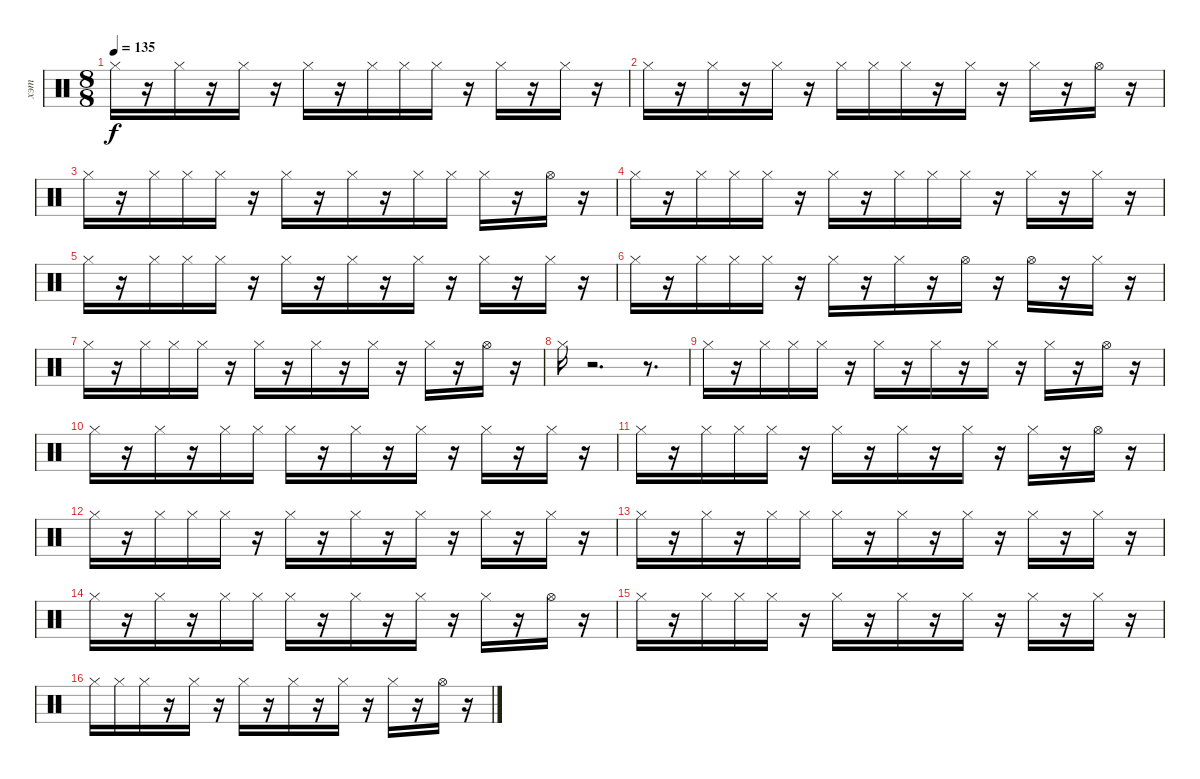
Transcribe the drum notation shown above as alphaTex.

\track ("хэт" "хэт") {instrument percussion}
\staff {score}
\articulation defaults
\ts (8 8)
\tempo 135
\clef neutral
\ks c "Hi-Hat (closed)".16{dy f}
r.16 "Hi-Hat (closed)".16 r.16 "Hi-Hat (closed)".16 r.16 "Hi-Hat (closed)".16 r.16 "Hi-Hat (closed)".16 "Hi-Hat (closed)".16 "Hi-Hat (closed)".16 r.16 "Hi-Hat (closed)".16 r.16 "Hi-Hat (closed)".16 r.16 |
"Hi-Hat (closed)".16 r.16 "Hi-Hat (closed)".16 r.16 "Hi-Hat (closed)".16 r.16 "Hi-Hat (closed)".16 "Hi-Hat (closed)".16 "Hi-Hat (closed)".16 r.16 "Hi-Hat (closed)".16 r.16 "Hi-Hat (closed)".16 r.16 "Hi-Hat (open)".16 r.16 |
"Hi-Hat (closed)".16 r.16 "Hi-Hat (closed)".16 "Hi-Hat (closed)".16 "Hi-Hat (closed)".16 r.16 "Hi-Hat (closed)".16 r.16 "Hi-Hat (closed)".16 r.16 "Hi-Hat (closed)".16 "Hi-Hat (closed)".16 "Hi-Hat (closed)".16 r.16 "Hi-Hat (open)".16 r.16 |
"Hi-Hat (closed)".16 r.16 "Hi-Hat (closed)".16 "Hi-Hat (closed)".16 "Hi-Hat (closed)".16 r.16 "Hi-Hat (closed)".16 r.16 "Hi-Hat (closed)".16 "Hi-Hat (closed)".16 "Hi-Hat (closed)".16 r.16 "Hi-Hat (closed)".16 r.16 "Hi-Hat (closed)".16 r.16 |
"Hi-Hat (closed)".16 r.16 "Hi-Hat (closed)".16 "Hi-Hat (closed)".16 "Hi-Hat (closed)".16 r.16 "Hi-Hat (closed)".16 r.16 "Hi-Hat (closed)".16 r.16 "Hi-Hat (closed)".16 r.16 "Hi-Hat (closed)".16 r.16 "Hi-Hat (closed)".16 r.16 |
"Hi-Hat (closed)".16 r.16 "Hi-Hat (closed)".16 "Hi-Hat (closed)".16 "Hi-Hat (closed)".16 r.16 "Hi-Hat (closed)".16 r.16 "Hi-Hat (closed)".16 r.16 "Hi-Hat (open)".16 r.16 "Hi-Hat (open)".16 r.16 "Hi-Hat (closed)".16 r.16 |
"Hi-Hat (closed)".16 r.16 "Hi-Hat (closed)".16 "Hi-Hat (closed)".16 "Hi-Hat (closed)".16 r.16 "Hi-Hat (closed)".16 r.16 "Hi-Hat (closed)".16 r.16 "Hi-Hat (closed)".16 r.16 "Hi-Hat (closed)".16 r.16 "Hi-Hat (open)".16 r.16 |
"Hi-Hat (closed)".16 r.2{d} r.8{d} |
"Hi-Hat (closed)".16 r.16 "Hi-Hat (closed)".16 "Hi-Hat (closed)".16 "Hi-Hat (closed)".16 r.16 "Hi-Hat (closed)".16 r.16 "Hi-Hat (closed)".16 r.16 "Hi-Hat (closed)".16 r.16 "Hi-Hat (closed)".16 r.16 "Hi-Hat (open)".16 r.16 |
"Hi-Hat (closed)".16 r.16 "Hi-Hat (closed)".16 r.16 "Hi-Hat (closed)".16 "Hi-Hat (closed)".16 "Hi-Hat (closed)".16 r.16 "Hi-Hat (closed)".16 r.16 "Hi-Hat (closed)".16 r.16 "Hi-Hat (closed)".16 r.16 "Hi-Hat (closed)".16 r.16 |
"Hi-Hat (closed)".16 r.16 "Hi-Hat (closed)".16 "Hi-Hat (closed)".16 "Hi-Hat (closed)".16 r.16 "Hi-Hat (closed)".16 r.16 "Hi-Hat (closed)".16 r.16 "Hi-Hat (closed)".16 r.16 "Hi-Hat (closed)".16 r.16 "Hi-Hat (open)".16 r.16 |
"Hi-Hat (closed)".16 r.16 "Hi-Hat (closed)".16 "Hi-Hat (closed)".16 "Hi-Hat (closed)".16 r.16 "Hi-Hat (closed)".16 r.16 "Hi-Hat (closed)".16 r.16 "Hi-Hat (closed)".16 r.16 "Hi-Hat (closed)".16 r.16 "Hi-Hat (closed)".16 r.16 |
"Hi-Hat (closed)".16 r.16 "Hi-Hat (closed)".16 r.16 "Hi-Hat (closed)".16 "Hi-Hat (closed)".16 "Hi-Hat (closed)".16 r.16 "Hi-Hat (closed)".16 r.16 "Hi-Hat (closed)".16 r.16 "Hi-Hat (closed)".16 r.16 "Hi-Hat (closed)".16 r.16 |
"Hi-Hat (closed)".16 r.16 "Hi-Hat (closed)".16 r.16 "Hi-Hat (closed)".16 "Hi-Hat (closed)".16 "Hi-Hat (closed)".16 r.16 "Hi-Hat (closed)".16 r.16 "Hi-Hat (closed)".16 r.16 "Hi-Hat (closed)".16 r.16 "Hi-Hat (open)".16 r.16 |
"Hi-Hat (closed)".16 r.16 "Hi-Hat (closed)".16 "Hi-Hat (closed)".16 "Hi-Hat (closed)".16 r.16 "Hi-Hat (closed)".16 r.16 "Hi-Hat (closed)".16 r.16 "Hi-Hat (closed)".16 r.16 "Hi-Hat (closed)".16 r.16 "Hi-Hat (closed)".16 r.16 |
"Hi-Hat (closed)".16 "Hi-Hat (closed)".16 "Hi-Hat (closed)".16 r.16 "Hi-Hat (closed)".16 r.16 "Hi-Hat (closed)".16 r.16 "Hi-Hat (closed)".16 r.16 "Hi-Hat (closed)".16 r.16 "Hi-Hat (closed)".16 r.16 "Hi-Hat (open)".16 r.16
